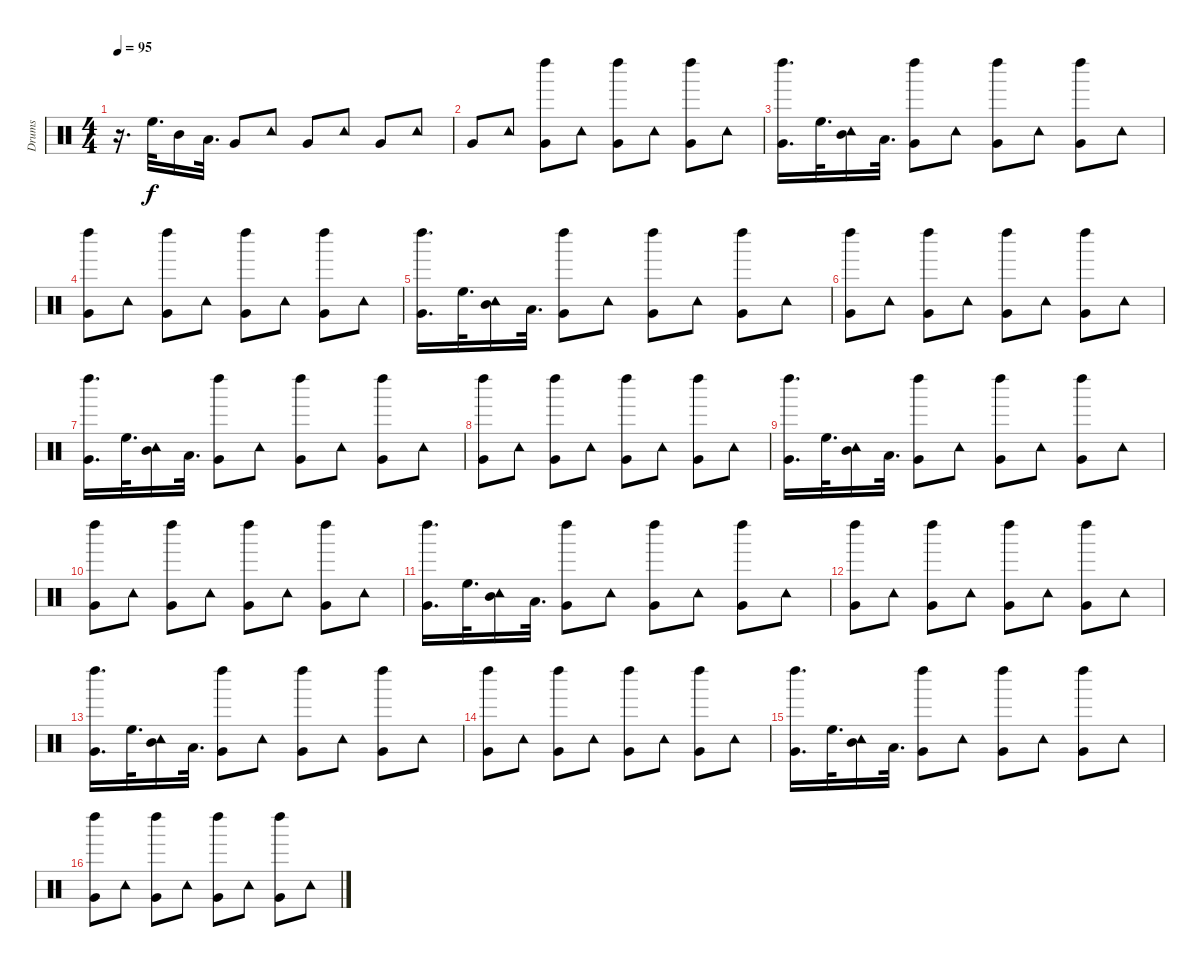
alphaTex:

\track ("Drums" "Drums") {instrument percussion}
\staff {score}
\articulation defaults
\ts (4 4)
\tempo 95
\clef neutral
\ks c
r.16{d dy f} "High Floor Tom (hit)".32{d} "Mid Tom (hit)".16 "Low Tom (hit)".32{d} "Very Low Tom (hit)".8 "Tambourine (hit)".8 "Very Low Tom (hit)".8 "Tambourine (hit)".8 "Very Low Tom (hit)".8 "Tambourine (hit)".8 |
"Very Low Tom (hit)".8 "Tambourine (hit)".8 ("Very Low Tom (hit)" "Left Maraca (hit)").8 "Tambourine (hit)".8 ("Very Low Tom (hit)" "Left Maraca (hit)").8 "Tambourine (hit)".8 ("Very Low Tom (hit)" "Left Maraca (hit)").8 "Tambourine (hit)".8 |
("Very Low Tom (hit)" "Left Maraca (hit)").16{d} "High Floor Tom (hit)".32{d} ("Mid Tom (hit)" "Tambourine (hit)").16 "Low Tom (hit)".32{d} ("Very Low Tom (hit)" "Left Maraca (hit)").8 "Tambourine (hit)".8 ("Very Low Tom (hit)" "Left Maraca (hit)").8 "Tambourine (hit)".8 ("Very Low Tom (hit)" "Left Maraca (hit)").8 "Tambourine (hit)".8 |
("Very Low Tom (hit)" "Left Maraca (hit)").8 "Tambourine (hit)".8 ("Very Low Tom (hit)" "Left Maraca (hit)").8 "Tambourine (hit)".8 ("Very Low Tom (hit)" "Left Maraca (hit)").8 "Tambourine (hit)".8 ("Very Low Tom (hit)" "Left Maraca (hit)").8 "Tambourine (hit)".8 |
("Very Low Tom (hit)" "Left Maraca (hit)").16{d} "High Floor Tom (hit)".32{d} ("Mid Tom (hit)" "Tambourine (hit)").16 "Low Tom (hit)".32{d} ("Very Low Tom (hit)" "Left Maraca (hit)").8 "Tambourine (hit)".8 ("Very Low Tom (hit)" "Left Maraca (hit)").8 "Tambourine (hit)".8 ("Very Low Tom (hit)" "Left Maraca (hit)").8 "Tambourine (hit)".8 |
("Very Low Tom (hit)" "Left Maraca (hit)").8 "Tambourine (hit)".8 ("Very Low Tom (hit)" "Left Maraca (hit)").8 "Tambourine (hit)".8 ("Very Low Tom (hit)" "Left Maraca (hit)").8 "Tambourine (hit)".8 ("Very Low Tom (hit)" "Left Maraca (hit)").8 "Tambourine (hit)".8 |
("Very Low Tom (hit)" "Left Maraca (hit)").16{d} "High Floor Tom (hit)".32{d} ("Mid Tom (hit)" "Tambourine (hit)").16 "Low Tom (hit)".32{d} ("Very Low Tom (hit)" "Left Maraca (hit)").8 "Tambourine (hit)".8 ("Very Low Tom (hit)" "Left Maraca (hit)").8 "Tambourine (hit)".8 ("Very Low Tom (hit)" "Left Maraca (hit)").8 "Tambourine (hit)".8 |
("Very Low Tom (hit)" "Left Maraca (hit)").8 "Tambourine (hit)".8 ("Very Low Tom (hit)" "Left Maraca (hit)").8 "Tambourine (hit)".8 ("Very Low Tom (hit)" "Left Maraca (hit)").8 "Tambourine (hit)".8 ("Very Low Tom (hit)" "Left Maraca (hit)").8 "Tambourine (hit)".8 |
("Very Low Tom (hit)" "Left Maraca (hit)").16{d} "High Floor Tom (hit)".32{d} ("Mid Tom (hit)" "Tambourine (hit)").16 "Low Tom (hit)".32{d} ("Very Low Tom (hit)" "Left Maraca (hit)").8 "Tambourine (hit)".8 ("Very Low Tom (hit)" "Left Maraca (hit)").8 "Tambourine (hit)".8 ("Very Low Tom (hit)" "Left Maraca (hit)").8 "Tambourine (hit)".8 |
("Very Low Tom (hit)" "Left Maraca (hit)").8 "Tambourine (hit)".8 ("Very Low Tom (hit)" "Left Maraca (hit)").8 "Tambourine (hit)".8 ("Very Low Tom (hit)" "Left Maraca (hit)").8 "Tambourine (hit)".8 ("Very Low Tom (hit)" "Left Maraca (hit)").8 "Tambourine (hit)".8 |
("Very Low Tom (hit)" "Left Maraca (hit)").16{d} "High Floor Tom (hit)".32{d} ("Mid Tom (hit)" "Tambourine (hit)").16 "Low Tom (hit)".32{d} ("Very Low Tom (hit)" "Left Maraca (hit)").8 "Tambourine (hit)".8 ("Very Low Tom (hit)" "Left Maraca (hit)").8 "Tambourine (hit)".8 ("Very Low Tom (hit)" "Left Maraca (hit)").8 "Tambourine (hit)".8 |
("Very Low Tom (hit)" "Left Maraca (hit)").8 "Tambourine (hit)".8 ("Very Low Tom (hit)" "Left Maraca (hit)").8 "Tambourine (hit)".8 ("Very Low Tom (hit)" "Left Maraca (hit)").8 "Tambourine (hit)".8 ("Very Low Tom (hit)" "Left Maraca (hit)").8 "Tambourine (hit)".8 |
("Very Low Tom (hit)" "Left Maraca (hit)").16{d} "High Floor Tom (hit)".32{d} ("Mid Tom (hit)" "Tambourine (hit)").16 "Low Tom (hit)".32{d} ("Very Low Tom (hit)" "Left Maraca (hit)").8 "Tambourine (hit)".8 ("Very Low Tom (hit)" "Left Maraca (hit)").8 "Tambourine (hit)".8 ("Very Low Tom (hit)" "Left Maraca (hit)").8 "Tambourine (hit)".8 |
("Very Low Tom (hit)" "Left Maraca (hit)").8 "Tambourine (hit)".8 ("Very Low Tom (hit)" "Left Maraca (hit)").8 "Tambourine (hit)".8 ("Very Low Tom (hit)" "Left Maraca (hit)").8 "Tambourine (hit)".8 ("Very Low Tom (hit)" "Left Maraca (hit)").8 "Tambourine (hit)".8 |
("Very Low Tom (hit)" "Left Maraca (hit)").16{d} "High Floor Tom (hit)".32{d} ("Mid Tom (hit)" "Tambourine (hit)").16 "Low Tom (hit)".32{d} ("Very Low Tom (hit)" "Left Maraca (hit)").8 "Tambourine (hit)".8 ("Very Low Tom (hit)" "Left Maraca (hit)").8 "Tambourine (hit)".8 ("Very Low Tom (hit)" "Left Maraca (hit)").8 "Tambourine (hit)".8 |
("Very Low Tom (hit)" "Left Maraca (hit)").8 "Tambourine (hit)".8 ("Very Low Tom (hit)" "Left Maraca (hit)").8 "Tambourine (hit)".8 ("Very Low Tom (hit)" "Left Maraca (hit)").8 "Tambourine (hit)".8 ("Very Low Tom (hit)" "Left Maraca (hit)").8 "Tambourine (hit)".8
